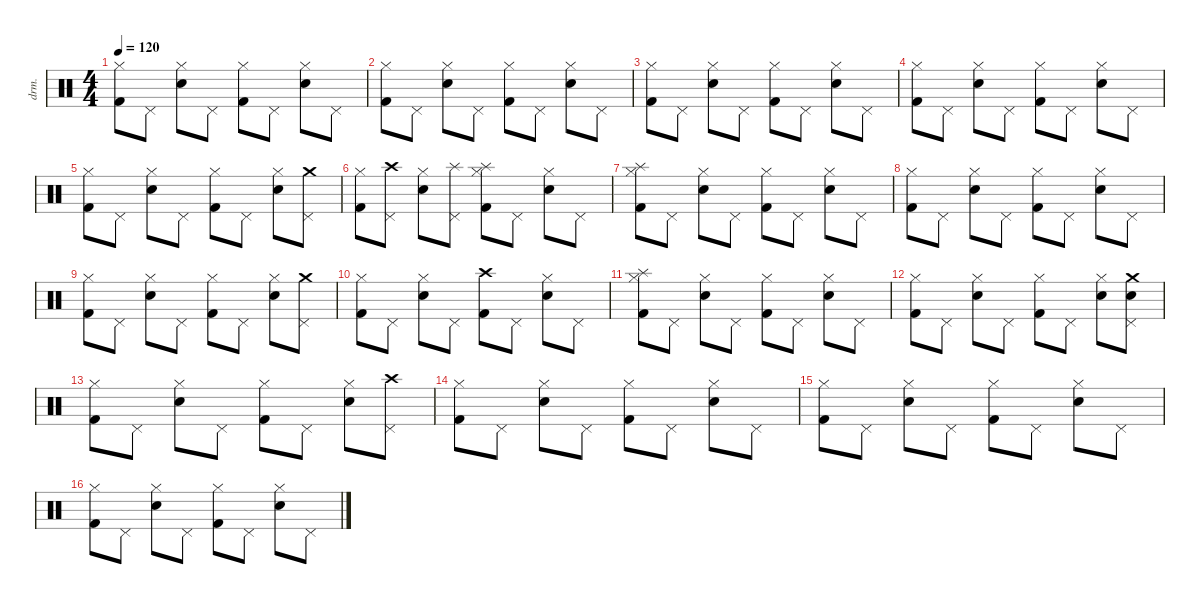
\defaultSystemsLayout 4
\hideDynamics
\bracketExtendMode nobrackets
\otherSystemsTrackNameOrientation horizontal
\track ("Percussion" "drm.") {instrument percussion}
\staff {score}
\articulation defaults
\ts (4 4)
\tempo 120
\clef neutral
\ks c
("Kick (hit) 2" "Hi-Hat (closed)").8{dy f beam Down} "Pedal Hi-Hat (hit)".8{beam Down} ("Snare (hit) 2" "Hi-Hat (closed)").8{beam Down} "Pedal Hi-Hat (hit)".8{beam Down} ("Kick (hit) 2" "Hi-Hat (closed)").8{beam Down} "Pedal Hi-Hat (hit)".8{beam Down} ("Snare (hit) 2" "Hi-Hat (closed)").8{beam Down} "Pedal Hi-Hat (hit)".8{beam Down} |
("Kick (hit) 2" "Hi-Hat (closed)").8{beam Down} "Pedal Hi-Hat (hit)".8{beam Down} ("Snare (hit) 2" "Hi-Hat (closed)").8{beam Down} "Pedal Hi-Hat (hit)".8{beam Down} ("Kick (hit) 2" "Hi-Hat (closed)").8{beam Down} "Pedal Hi-Hat (hit)".8{beam Down} ("Snare (hit) 2" "Hi-Hat (closed)").8{beam Down} "Pedal Hi-Hat (hit)".8{beam Down} |
("Kick (hit) 2" "Hi-Hat (closed)").8{beam Down} "Pedal Hi-Hat (hit)".8{beam Down} ("Snare (hit) 2" "Hi-Hat (closed)").8{beam Down} "Pedal Hi-Hat (hit)".8{beam Down} ("Kick (hit) 2" "Hi-Hat (closed)").8{beam Down} "Pedal Hi-Hat (hit)".8{beam Down} ("Snare (hit) 2" "Hi-Hat (closed)").8{beam Down} "Pedal Hi-Hat (hit)".8{beam Down} |
("Kick (hit) 2" "Hi-Hat (closed)").8{beam Down} "Pedal Hi-Hat (hit)".8{beam Down} ("Snare (hit) 2" "Hi-Hat (closed)").8{beam Down} "Pedal Hi-Hat (hit)".8{beam Down} ("Kick (hit) 2" "Hi-Hat (closed)").8{beam Down} "Pedal Hi-Hat (hit)".8{beam Down} ("Snare (hit) 2" "Hi-Hat (closed)").8{beam Down} "Pedal Hi-Hat (hit)".8{beam Down} |
("Kick (hit) 2" "Hi-Hat (closed)").8{beam Down} "Pedal Hi-Hat (hit)".8{beam Down} ("Snare (hit) 2" "Hi-Hat (closed)").8{beam Down} "Pedal Hi-Hat (hit)".8{beam Down} ("Kick (hit) 2" "Hi-Hat (closed)").8{beam Down} "Pedal Hi-Hat (hit)".8{beam Down} ("Snare (hit) 2" "Hi-Hat (closed)").8{beam Down} ("Pedal Hi-Hat (hit)" "Crash medium (hit)").8{beam Down} |
("Kick (hit) 2" "Hi-Hat (closed)").8{beam Down} ("Pedal Hi-Hat (hit)" "Crash high (hit)").8{beam Down} ("Snare (hit) 2" "Hi-Hat (closed)").8{beam Down} ("Pedal Hi-Hat (hit)" "Splash (hit)").8{beam Down} ("Kick (hit) 2" "Hi-Hat (closed)" "Splash (hit)").8{beam Down} "Pedal Hi-Hat (hit)".8{beam Down} ("Snare (hit) 2" "Hi-Hat (closed)").8{beam Down} "Pedal Hi-Hat (hit)".8{beam Down} |
("Kick (hit) 2" "Hi-Hat (closed)" "Splash (hit)").8{beam Down} "Pedal Hi-Hat (hit)".8{beam Down} ("Snare (hit) 2" "Hi-Hat (closed)").8{beam Down} "Pedal Hi-Hat (hit)".8{beam Down} ("Kick (hit) 2" "Hi-Hat (closed)").8{beam Down} "Pedal Hi-Hat (hit)".8{beam Down} ("Snare (hit) 2" "Hi-Hat (closed)").8{beam Down} "Pedal Hi-Hat (hit)".8{beam Down} |
("Kick (hit) 2" "Hi-Hat (closed)").8{beam Down} "Pedal Hi-Hat (hit)".8{beam Down} ("Snare (hit) 2" "Hi-Hat (closed)").8{beam Down} "Pedal Hi-Hat (hit)".8{beam Down} ("Kick (hit) 2" "Hi-Hat (closed)").8{beam Down} "Pedal Hi-Hat (hit)".8{beam Down} ("Snare (hit) 2" "Hi-Hat (closed)").8{beam Down} "Pedal Hi-Hat (hit)".8{beam Down} |
("Kick (hit) 2" "Hi-Hat (closed)").8{beam Down} "Pedal Hi-Hat (hit)".8{beam Down} ("Snare (hit) 2" "Hi-Hat (closed)").8{beam Down} "Pedal Hi-Hat (hit)".8{beam Down} ("Kick (hit) 2" "Hi-Hat (closed)").8{beam Down} "Pedal Hi-Hat (hit)".8{beam Down} ("Snare (hit) 2" "Hi-Hat (closed)").8{beam Down} ("Pedal Hi-Hat (hit)" "Crash medium (hit)").8{beam Down} |
("Kick (hit) 2" "Hi-Hat (closed)").8{beam Down} "Pedal Hi-Hat (hit)".8{beam Down} ("Snare (hit) 2" "Hi-Hat (closed)").8{beam Down} "Pedal Hi-Hat (hit)".8{beam Down} ("Kick (hit) 2" "Crash high (hit)").8{beam Down} "Pedal Hi-Hat (hit)".8{beam Down} ("Snare (hit) 2" "Hi-Hat (closed)").8{beam Down} "Pedal Hi-Hat (hit)".8{beam Down} |
("Kick (hit) 2" "Hi-Hat (closed)" "Splash (hit)").8{beam Down} "Pedal Hi-Hat (hit)".8{beam Down} ("Snare (hit) 2" "Hi-Hat (closed)").8{beam Down} "Pedal Hi-Hat (hit)".8{beam Down} ("Kick (hit) 2" "Hi-Hat (closed)").8{beam Down} "Pedal Hi-Hat (hit)".8{beam Down} ("Snare (hit) 2" "Hi-Hat (closed)").8{beam Down} "Pedal Hi-Hat (hit)".8{beam Down} |
("Kick (hit) 2" "Hi-Hat (closed)").8{beam Down} "Pedal Hi-Hat (hit)".8{beam Down} ("Snare (hit) 2" "Hi-Hat (closed)").8{beam Down} "Pedal Hi-Hat (hit)".8{beam Down} ("Kick (hit) 2" "Hi-Hat (closed)").8{beam Down} "Pedal Hi-Hat (hit)".8{beam Down} ("Snare (hit) 2" "Hi-Hat (closed)").8{beam Down} ("Pedal Hi-Hat (hit)" "Crash medium (hit)" "Snare (hit) 2").8{beam Down} |
("Kick (hit) 2" "Hi-Hat (closed)").8{beam Down} "Pedal Hi-Hat (hit)".8{beam Down} ("Snare (hit) 2" "Hi-Hat (closed)").8{beam Down} "Pedal Hi-Hat (hit)".8{beam Down} ("Kick (hit) 2" "Hi-Hat (closed)").8{beam Down} "Pedal Hi-Hat (hit)".8{beam Down} ("Snare (hit) 2" "Hi-Hat (closed)").8{beam Down} ("Pedal Hi-Hat (hit)" "Crash high (hit)").8{beam Down} |
("Kick (hit) 2" "Hi-Hat (closed)").8{beam Down} "Pedal Hi-Hat (hit)".8{beam Down} ("Snare (hit) 2" "Hi-Hat (closed)").8{beam Down} "Pedal Hi-Hat (hit)".8{beam Down} ("Kick (hit) 2" "Hi-Hat (closed)").8{beam Down} "Pedal Hi-Hat (hit)".8{beam Down} ("Snare (hit) 2" "Hi-Hat (closed)").8{beam Down} "Pedal Hi-Hat (hit)".8{beam Down} |
("Kick (hit) 2" "Hi-Hat (closed)").8{beam Down} "Pedal Hi-Hat (hit)".8{beam Down} ("Snare (hit) 2" "Hi-Hat (closed)").8{beam Down} "Pedal Hi-Hat (hit)".8{beam Down} ("Kick (hit) 2" "Hi-Hat (closed)").8{beam Down} "Pedal Hi-Hat (hit)".8{beam Down} ("Snare (hit) 2" "Hi-Hat (closed)").8{beam Down} "Pedal Hi-Hat (hit)".8{beam Down} |
("Kick (hit) 2" "Hi-Hat (closed)").8{beam Down} "Pedal Hi-Hat (hit)".8{beam Down} ("Snare (hit) 2" "Hi-Hat (closed)").8{beam Down} "Pedal Hi-Hat (hit)".8{beam Down} ("Kick (hit) 2" "Hi-Hat (closed)").8{beam Down} "Pedal Hi-Hat (hit)".8{beam Down} ("Snare (hit) 2" "Hi-Hat (closed)").8{beam Down} "Pedal Hi-Hat (hit)".8{beam Down}
